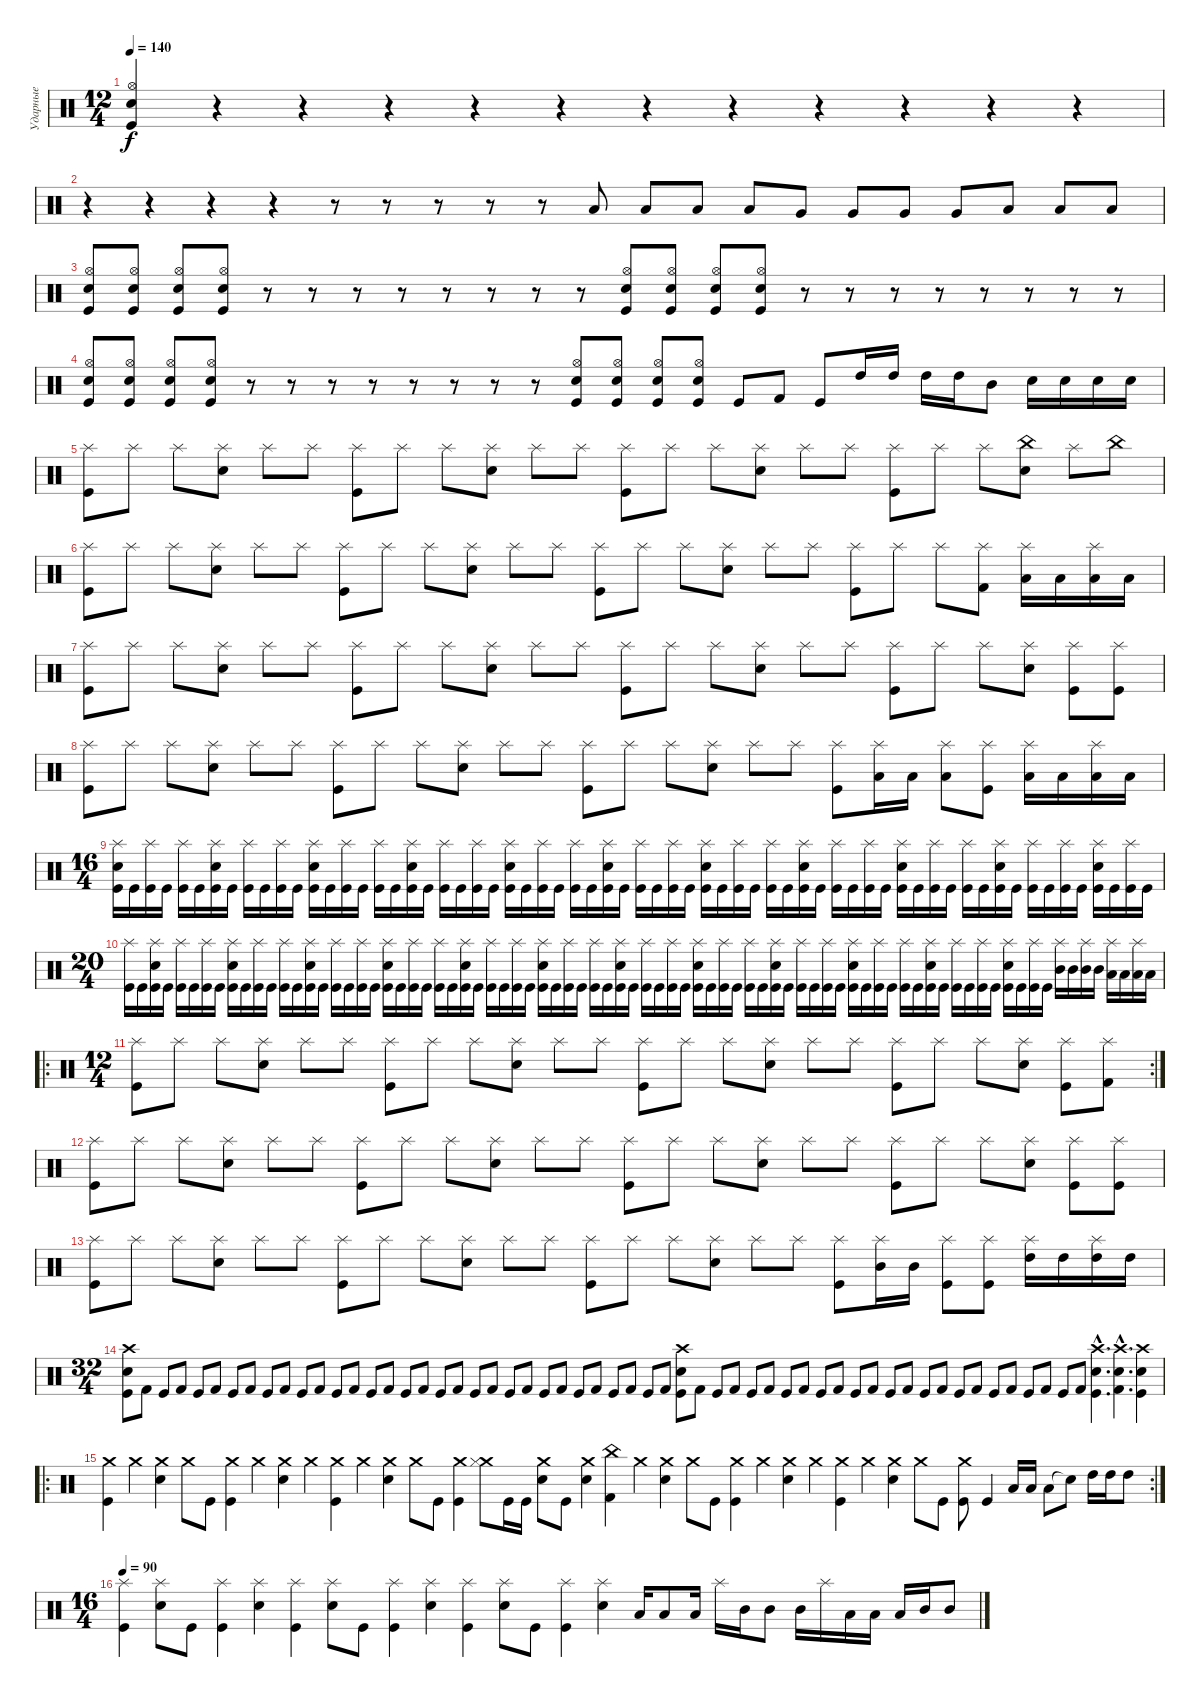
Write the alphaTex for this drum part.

\track ("Ударные" "Ударные") {instrument percussion}
\staff {score}
\articulation defaults
\ts (12 4)
\tempo 140
\clef neutral
\ks c
("Kick (hit)" "Hi-Hat (open)" "Snare (hit) 2").4{dy f} r.4 r.4 r.4 r.4 r.4 r.4 r.4 r.4 r.4 r.4 r.4 |
r.4 r.4 r.4 r.4 r.8 r.8 r.8 r.8 r.8 "Low Floor Tom (hit)".8 "Low Floor Tom (hit)".8 "Low Floor Tom (hit)".8 "Low Floor Tom (hit)".8 "Very Low Tom (hit)".8 "Very Low Tom (hit)".8 "Very Low Tom (hit)".8 "Very Low Tom (hit)".8 "Low Tom (hit)".8 "Low Tom (hit)".8 "Low Tom (hit)".8 |
("Kick (hit)" "Snare (hit) 2" "Hi-Hat (open)").8 ("Kick (hit)" "Snare (hit) 2" "Hi-Hat (open)").8 ("Kick (hit)" "Snare (hit) 2" "Hi-Hat (open)").8 ("Kick (hit)" "Snare (hit) 2" "Hi-Hat (open)").8 r.8 r.8 r.8 r.8 r.8 r.8 r.8 r.8 ("Kick (hit)" "Snare (hit) 2" "Hi-Hat (open)").8 ("Kick (hit)" "Snare (hit) 2" "Hi-Hat (open)").8 ("Kick (hit)" "Snare (hit) 2" "Hi-Hat (open)").8 ("Kick (hit)" "Snare (hit) 2" "Hi-Hat (open)").8 r.8 r.8 r.8 r.8 r.8 r.8 r.8 r.8 |
("Kick (hit)" "Snare (hit) 2" "Hi-Hat (open)").8 ("Kick (hit)" "Snare (hit) 2" "Hi-Hat (open)").8 ("Kick (hit)" "Snare (hit) 2" "Hi-Hat (open)").8 ("Kick (hit)" "Snare (hit) 2" "Hi-Hat (open)").8 r.8 r.8 r.8 r.8 r.8 r.8 r.8 r.8 ("Kick (hit)" "Snare (hit) 2" "Hi-Hat (open)").8 ("Kick (hit)" "Snare (hit) 2" "Hi-Hat (open)").8 ("Kick (hit)" "Snare (hit) 2" "Hi-Hat (open)").8 ("Kick (hit)" "Snare (hit) 2" "Hi-Hat (open)").8 "Kick (hit)".8 "Kick (hit) 2".8 "Kick (hit)".8 "High Tom (hit)".16 "High Tom (hit)".16 "High Tom (hit)".16 "High Tom (hit)".16 "Mid Tom (hit)".8 "Snare (hit) 2".16 "Snare (hit) 2".16 "Snare (hit) 2".16 "Snare (hit) 2".16 |
("Splash (hit)" "Kick (hit)").8 "Splash (hit)".8 "Splash (hit)".8 ("Splash (hit)" "Snare (hit) 2").8 "Splash (hit)".8 "Splash (hit)".8 ("Splash (hit)" "Kick (hit)").8 "Splash (hit)".8 "Splash (hit)".8 ("Splash (hit)" "Snare (hit) 2").8 "Splash (hit)".8 "Splash (hit)".8 ("Splash (hit)" "Kick (hit)").8 "Splash (hit)".8 "Splash (hit)".8 ("Splash (hit)" "Snare (hit) 2").8 "Splash (hit)".8 "Splash (hit)".8 ("Splash (hit)" "Kick (hit)").8 "Splash (hit)".8 "Splash (hit)".8 ("China (hit)" "Snare (hit) 2").8 "Splash (hit)".8 "China (hit)".8 |
("Splash (hit)" "Kick (hit)").8 "Splash (hit)".8 "Splash (hit)".8 ("Splash (hit)" "Snare (hit) 2").8 "Splash (hit)".8 "Splash (hit)".8 ("Splash (hit)" "Kick (hit)").8 "Splash (hit)".8 "Splash (hit)".8 ("Splash (hit)" "Snare (hit) 2").8 "Splash (hit)".8 "Splash (hit)".8 ("Splash (hit)" "Kick (hit)").8 "Splash (hit)".8 "Splash (hit)".8 ("Splash (hit)" "Snare (hit) 2").8 "Splash (hit)".8 "Splash (hit)".8 ("Splash (hit)" "Kick (hit)").8 "Splash (hit)".8 "Splash (hit)".8 ("Splash (hit)" "Kick (hit) 2").8 ("Splash (hit)" "Low Tom (hit)").16 "Low Tom (hit)".16 ("Splash (hit)" "Low Tom (hit)").16 "Low Tom (hit)".16 |
("Splash (hit)" "Kick (hit)").8 "Splash (hit)".8 "Splash (hit)".8 ("Splash (hit)" "Snare (hit) 2").8 "Splash (hit)".8 "Splash (hit)".8 ("Splash (hit)" "Kick (hit)").8 "Splash (hit)".8 "Splash (hit)".8 ("Splash (hit)" "Snare (hit) 2").8 "Splash (hit)".8 "Splash (hit)".8 ("Splash (hit)" "Kick (hit)").8 "Splash (hit)".8 "Splash (hit)".8 ("Splash (hit)" "Snare (hit) 2").8 "Splash (hit)".8 "Splash (hit)".8 ("Splash (hit)" "Kick (hit)").8 "Splash (hit)".8 "Splash (hit)".8 ("Splash (hit)" "Snare (hit) 2").8 ("Splash (hit)" "Kick (hit)").8 ("Splash (hit)" "Kick (hit)").8 |
("Splash (hit)" "Kick (hit)").8 "Splash (hit)".8 "Splash (hit)".8 ("Splash (hit)" "Snare (hit) 2").8 "Splash (hit)".8 "Splash (hit)".8 ("Splash (hit)" "Kick (hit)").8 "Splash (hit)".8 "Splash (hit)".8 ("Splash (hit)" "Snare (hit) 2").8 "Splash (hit)".8 "Splash (hit)".8 ("Splash (hit)" "Kick (hit)").8 "Splash (hit)".8 "Splash (hit)".8 ("Splash (hit)" "Snare (hit) 2").8 "Splash (hit)".8 "Splash (hit)".8 ("Splash (hit)" "Kick (hit)").8 ("Splash (hit)" "Low Tom (hit)").16 "Low Tom (hit)".16 ("Splash (hit)" "Low Tom (hit)").8 ("Splash (hit)" "Kick (hit)").8 ("Splash (hit)" "Low Tom (hit)").16 "Low Tom (hit)".16 ("Splash (hit)" "Low Tom (hit)").16 "Low Tom (hit)".16 |
\ts (16 4)
("Splash (hit)" "Snare (hit) 2" "Kick (hit)").16 "Kick (hit)".16 ("Splash (hit)" "Kick (hit)").16 "Kick (hit)".16 ("Splash (hit)" "Kick (hit)").16 "Kick (hit)".16 ("Splash (hit)" "Snare (hit) 2" "Kick (hit)").16 "Kick (hit)".16 ("Splash (hit)" "Kick (hit)").16 "Kick (hit)".16 ("Splash (hit)" "Kick (hit)").16 "Kick (hit)".16 ("Splash (hit)" "Snare (hit) 2" "Kick (hit)").16 "Kick (hit)".16 ("Splash (hit)" "Kick (hit)").16 "Kick (hit)".16 ("Splash (hit)" "Kick (hit)").16 "Kick (hit)".16 ("Splash (hit)" "Snare (hit) 2" "Kick (hit)").16 "Kick (hit)".16 ("Splash (hit)" "Kick (hit)").16 "Kick (hit)".16 ("Splash (hit)" "Kick (hit)").16 "Kick (hit)".16 ("Splash (hit)" "Snare (hit) 2" "Kick (hit)").16 "Kick (hit)".16 ("Splash (hit)" "Kick (hit)").16 "Kick (hit)".16 ("Splash (hit)" "Kick (hit)").16 "Kick (hit)".16 ("Splash (hit)" "Snare (hit) 2" "Kick (hit)").16 "Kick (hit)".16 ("Splash (hit)" "Kick (hit)").16 "Kick (hit)".16 ("Splash (hit)" "Kick (hit)").16 "Kick (hit)".16 ("Splash (hit)" "Snare (hit) 2" "Kick (hit)").16 "Kick (hit)".16 ("Splash (hit)" "Kick (hit)").16 "Kick (hit)".16 ("Splash (hit)" "Kick (hit)").16 "Kick (hit)".16 ("Splash (hit)" "Snare (hit) 2" "Kick (hit)").16 "Kick (hit)".16 ("Splash (hit)" "Kick (hit)").16 "Kick (hit)".16 ("Splash (hit)" "Kick (hit)").16 "Kick (hit)".16 ("Splash (hit)" "Snare (hit) 2" "Kick (hit)").16 "Kick (hit)".16 ("Splash (hit)" "Kick (hit)").16 "Kick (hit)".16 ("Splash (hit)" "Kick (hit)").16 "Kick (hit)".16 ("Splash (hit)" "Snare (hit) 2" "Kick (hit)").16 "Kick (hit)".16 ("Splash (hit)" "Kick (hit)").16 "Kick (hit)".16 ("Splash (hit)" "Kick (hit)").16 "Kick (hit)".16 ("Splash (hit)" "Snare (hit) 2" "Kick (hit)").16 "Kick (hit)".16 ("Splash (hit)" "Kick (hit)").16 "Kick (hit)".16 |
\ts (20 4)
("Splash (hit)" "Kick (hit)").16 "Kick (hit)".16 ("Splash (hit)" "Snare (hit) 2" "Kick (hit)").16 "Kick (hit)".16 ("Splash (hit)" "Kick (hit)").16 "Kick (hit)".16 ("Splash (hit)" "Kick (hit)").16 "Kick (hit)".16 ("Splash (hit)" "Snare (hit) 2" "Kick (hit)").16 "Kick (hit)".16 ("Splash (hit)" "Kick (hit)").16 "Kick (hit)".16 ("Splash (hit)" "Kick (hit)").16 "Kick (hit)".16 ("Splash (hit)" "Snare (hit) 2" "Kick (hit)").16 "Kick (hit)".16 ("Splash (hit)" "Kick (hit)").16 "Kick (hit)".16 ("Splash (hit)" "Kick (hit)").16 "Kick (hit)".16 ("Splash (hit)" "Snare (hit) 2" "Kick (hit)").16 "Kick (hit)".16 ("Splash (hit)" "Kick (hit)").16 "Kick (hit)".16 ("Splash (hit)" "Kick (hit)").16 "Kick (hit)".16 ("Splash (hit)" "Snare (hit) 2" "Kick (hit)").16 "Kick (hit)".16 ("Splash (hit)" "Kick (hit)").16 "Kick (hit)".16 ("Splash (hit)" "Kick (hit)").16 "Kick (hit)".16 ("Splash (hit)" "Snare (hit) 2" "Kick (hit)").16 "Kick (hit)".16 ("Splash (hit)" "Kick (hit)").16 "Kick (hit)".16 ("Splash (hit)" "Kick (hit)").16 "Kick (hit)".16 ("Splash (hit)" "Snare (hit) 2" "Kick (hit)").16 "Kick (hit)".16 ("Splash (hit)" "Kick (hit)").16 "Kick (hit)".16 ("Splash (hit)" "Kick (hit)").16 "Kick (hit)".16 ("Splash (hit)" "Snare (hit) 2" "Kick (hit)").16 "Kick (hit)".16 ("Splash (hit)" "Kick (hit)").16 "Kick (hit)".16 ("Splash (hit)" "Kick (hit)").16 "Kick (hit)".16 ("Splash (hit)" "Snare (hit) 2" "Kick (hit)").16 "Kick (hit)".16 ("Splash (hit)" "Kick (hit)").16 "Kick (hit)".16 ("Splash (hit)" "Kick (hit)").16 "Kick (hit)".16 ("Splash (hit)" "Snare (hit) 2" "Kick (hit)").16 "Kick (hit)".16 ("Splash (hit)" "Kick (hit)").16 "Kick (hit)".16 ("Splash (hit)" "Kick (hit)").16 "Kick (hit)".16 ("Splash (hit)" "Snare (hit) 2" "Kick (hit)").16 "Kick (hit)".16 ("Splash (hit)" "Kick (hit)").16 "Kick (hit)".16 ("Splash (hit)" "Kick (hit)").16 "Kick (hit)".16 ("Splash (hit)" "Snare (hit) 2" "Kick (hit)").16 "Kick (hit)".16 ("Splash (hit)" "Kick (hit)").16 "Kick (hit)".16 ("Splash (hit)" "Mid Tom (hit)").16 "Mid Tom (hit)".16 ("Splash (hit)" "Mid Tom (hit)").16 "Mid Tom (hit)".16 ("Splash (hit)" "Low Tom (hit)").16 "Low Tom (hit)".16 ("Splash (hit)" "Low Tom (hit)").16 "Low Tom (hit)".16 |
\ro
\rc 2
\ts (12 4)
("Splash (hit)" "Kick (hit)").8 "Splash (hit)".8 "Splash (hit)".8 ("Splash (hit)" "Snare (hit) 2").8 "Splash (hit)".8 "Splash (hit)".8 ("Splash (hit)" "Kick (hit)").8 "Splash (hit)".8 "Splash (hit)".8 ("Splash (hit)" "Snare (hit) 2").8 "Splash (hit)".8 "Splash (hit)".8 ("Splash (hit)" "Kick (hit)").8 "Splash (hit)".8 "Splash (hit)".8 ("Splash (hit)" "Snare (hit) 2").8 "Splash (hit)".8 "Splash (hit)".8 ("Splash (hit)" "Kick (hit)").8 "Splash (hit)".8 "Splash (hit)".8 ("Splash (hit)" "Snare (hit) 2").8 ("Splash (hit)" "Kick (hit)").8 ("Splash (hit)" "Kick (hit) 2").8 |
("Splash (hit)" "Kick (hit)").8 "Splash (hit)".8 "Splash (hit)".8 ("Splash (hit)" "Snare (hit) 2").8 "Splash (hit)".8 "Splash (hit)".8 ("Splash (hit)" "Kick (hit)").8 "Splash (hit)".8 "Splash (hit)".8 ("Splash (hit)" "Snare (hit) 2").8 "Splash (hit)".8 "Splash (hit)".8 ("Splash (hit)" "Kick (hit)").8 "Splash (hit)".8 "Splash (hit)".8 ("Splash (hit)" "Snare (hit) 2").8 "Splash (hit)".8 "Splash (hit)".8 ("Splash (hit)" "Kick (hit)").8 "Splash (hit)".8 "Splash (hit)".8 ("Splash (hit)" "Snare (hit) 2").8 ("Splash (hit)" "Kick (hit)").8 ("Splash (hit)" "Kick (hit)").8 |
("Splash (hit)" "Kick (hit)").8 "Splash (hit)".8 "Splash (hit)".8 ("Splash (hit)" "Snare (hit) 2").8 "Splash (hit)".8 "Splash (hit)".8 ("Splash (hit)" "Kick (hit)").8 "Splash (hit)".8 "Splash (hit)".8 ("Splash (hit)" "Snare (hit) 2").8 "Splash (hit)".8 "Splash (hit)".8 ("Splash (hit)" "Kick (hit)").8 "Splash (hit)".8 "Splash (hit)".8 ("Splash (hit)" "Snare (hit) 2").8 "Splash (hit)".8 "Splash (hit)".8 ("Splash (hit)" "Kick (hit)").8 ("Splash (hit)" "Mid Tom (hit)").16 "Mid Tom (hit)".16 ("Splash (hit)" "Kick (hit)").8 ("Splash (hit)" "Kick (hit)").8 ("Splash (hit)" "High Tom (hit)").16 "High Tom (hit)".16 ("Splash (hit)" "High Tom (hit)").16 "High Tom (hit)".16 |
\ts (32 4)
("Crash high (hit)" "Snare (hit) 2" "Kick (hit)").8 "Kick (hit) 2".8 "Kick (hit)".8 "Kick (hit) 2".8 "Kick (hit)".8 "Kick (hit) 2".8 "Kick (hit)".8 "Kick (hit) 2".8 "Kick (hit)".8 "Kick (hit) 2".8 "Kick (hit)".8 "Kick (hit) 2".8 "Kick (hit)".8 "Kick (hit) 2".8 "Kick (hit)".8 "Kick (hit) 2".8 "Kick (hit)".8 "Kick (hit) 2".8 "Kick (hit)".8 "Kick (hit) 2".8 "Kick (hit)".8 "Kick (hit) 2".8 "Kick (hit)".8 "Kick (hit) 2".8 "Kick (hit)".8 "Kick (hit) 2".8 "Kick (hit)".8 "Kick (hit) 2".8 "Kick (hit)".8 "Kick (hit) 2".8 "Kick (hit)".8 "Kick (hit) 2".8 ("Crash high (hit)" "Snare (hit) 2" "Kick (hit)").8 "Kick (hit) 2".8 "Kick (hit)".8 "Kick (hit) 2".8 "Kick (hit)".8 "Kick (hit) 2".8 "Kick (hit)".8 "Kick (hit) 2".8 "Kick (hit)".8 "Kick (hit) 2".8 "Kick (hit)".8 "Kick (hit) 2".8 "Kick (hit)".8 "Kick (hit) 2".8 "Kick (hit)".8 "Kick (hit) 2".8 "Kick (hit)".8 "Kick (hit) 2".8 "Kick (hit)".8 "Kick (hit) 2".8 "Kick (hit)".8 "Kick (hit) 2".8 "Kick (hit)".8 "Kick (hit) 2".8 ("Crash high (hit)"{hac} "Snare (hit) 2"{hac} "Kick (hit)"{hac}).4{d} ("Crash high (hit)"{hac} "Snare (hit) 2"{hac} "Kick (hit) 2"{hac}).4{d} ("Crash high (hit)" "Snare (hit) 2" "Kick (hit)").4 |
\ro
\rc 2
("Crash medium (hit)" "Kick (hit)").4 "Crash medium (hit)".4 ("Crash medium (hit)" "Snare (hit) 2").4 "Crash medium (hit)".8 "Kick (hit)".8 ("Crash medium (hit)" "Kick (hit)").4 "Crash medium (hit)".4 ("Crash medium (hit)" "Snare (hit) 2").4 "Crash medium (hit)".4 ("Crash medium (hit)" "Kick (hit)").4 "Crash medium (hit)".4 ("Crash medium (hit)" "Snare (hit) 2").4 "Crash medium (hit)".8 "Kick (hit)".8 ("Crash medium (hit)" "Kick (hit)").4 ("Crash medium (hit)" "Hi-Hat (closed)").8 "Kick (hit)".16 "Kick (hit)".16 ("Crash medium (hit)" "Snare (hit) 2").8 "Kick (hit)".8 ("Crash medium (hit)" "Snare (hit) 2").4 ("China (hit)" "Kick (hit) 2").4 "Crash medium (hit)".4 ("Crash medium (hit)" "Snare (hit) 2").4 "Crash medium (hit)".8 "Kick (hit)".8 ("Crash medium (hit)" "Kick (hit)").4 "Crash medium (hit)".4 ("Crash medium (hit)" "Snare (hit) 2").4 "Crash medium (hit)".4 ("Crash medium (hit)" "Kick (hit)").4 "Crash medium (hit)".4 ("Crash medium (hit)" "Snare (hit) 2").4 "Crash medium (hit)".8 "Kick (hit)".8 ("Crash medium (hit)" "Kick (hit)").8 "Kick (hit)".4 "Low Tom (hit)".16 "Low Tom (hit)".16 "Low Tom (hit)".8 "Electric Snare (hit)"{t}.8 "High Tom (hit)".16 "High Tom (hit)".16 "High Tom (hit)".8 |
\ts (16 4)
\tempo 90
("Splash (hit)" "Kick (hit)").4 ("Splash (hit)" "Snare (hit) 2").8 "Kick (hit)".8 ("Splash (hit)" "Kick (hit)").4 ("Splash (hit)" "Snare (hit) 2").4 ("Splash (hit)" "Kick (hit)").4 ("Splash (hit)" "Snare (hit) 2").8 "Kick (hit)".8 ("Splash (hit)" "Kick (hit)").4 ("Splash (hit)" "Snare (hit) 2").4 ("Splash (hit)" "Kick (hit)").4 ("Splash (hit)" "Snare (hit) 2").8 "Kick (hit)".8 ("Splash (hit)" "Kick (hit)").4 ("Splash (hit)" "Snare (hit) 2").4 "Low Tom (hit)".16 "Low Tom (hit)".8 "Low Tom (hit)".16 "Splash (hit)"{x}.16 "Mid Tom (hit)".16 "Mid Tom (hit)".8 "Mid Tom (hit)".16 "Splash (hit)"{x}.16 "Low Tom (hit)".16 "Low Tom (hit)".16 "Low Tom (hit)".16 "Mid Tom (hit)".16 "Mid Tom (hit)".8
